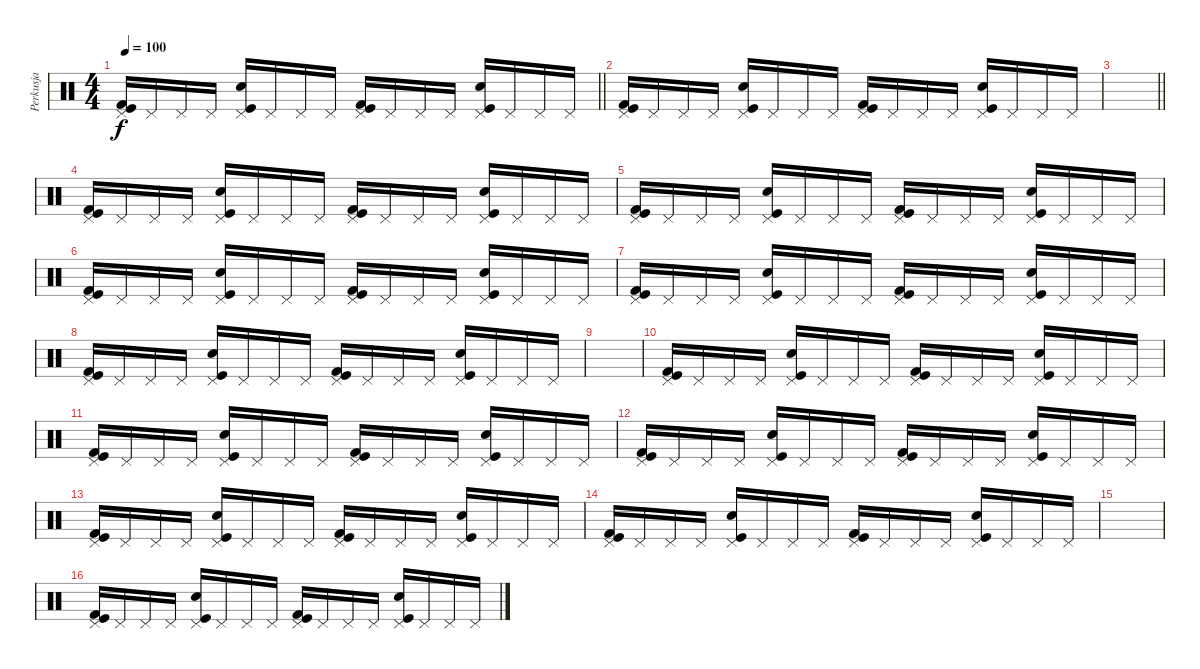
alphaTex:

\track ("Perkusja" "Perkusja") {instrument percussion}
\staff {score}
\articulation defaults
\ts (4 4)
\tempo 100
\clef neutral
\barLineRight lightlight
\ks c
("Pedal Hi-Hat (hit)" "Kick (hit)" "Kick (hit) 2").16{dy f} "Pedal Hi-Hat (hit)".16 "Pedal Hi-Hat (hit)".16 "Pedal Hi-Hat (hit)".16 ("Pedal Hi-Hat (hit)" "Hand Clap (hit)" "Kick (hit)").16 "Pedal Hi-Hat (hit)".16 "Pedal Hi-Hat (hit)".16 "Pedal Hi-Hat (hit)".16 ("Pedal Hi-Hat (hit)" "Kick (hit)" "Kick (hit) 2").16 "Pedal Hi-Hat (hit)".16 "Pedal Hi-Hat (hit)".16 "Pedal Hi-Hat (hit)".16 ("Pedal Hi-Hat (hit)" "Hand Clap (hit)" "Kick (hit)").16 "Pedal Hi-Hat (hit)".16 "Pedal Hi-Hat (hit)".16 "Pedal Hi-Hat (hit)".16 |
("Pedal Hi-Hat (hit)" "Kick (hit)" "Kick (hit) 2").16 "Pedal Hi-Hat (hit)".16 "Pedal Hi-Hat (hit)".16 "Pedal Hi-Hat (hit)".16 ("Pedal Hi-Hat (hit)" "Hand Clap (hit)" "Kick (hit)").16 "Pedal Hi-Hat (hit)".16 "Pedal Hi-Hat (hit)".16 "Pedal Hi-Hat (hit)".16 ("Pedal Hi-Hat (hit)" "Kick (hit)" "Kick (hit) 2").16 "Pedal Hi-Hat (hit)".16 "Pedal Hi-Hat (hit)".16 "Pedal Hi-Hat (hit)".16 ("Pedal Hi-Hat (hit)" "Hand Clap (hit)" "Kick (hit)").16 "Pedal Hi-Hat (hit)".16 "Pedal Hi-Hat (hit)".16 "Pedal Hi-Hat (hit)".16 |
\barLineRight lightlight
|
("Pedal Hi-Hat (hit)" "Kick (hit)" "Kick (hit) 2").16 "Pedal Hi-Hat (hit)".16 "Pedal Hi-Hat (hit)".16 "Pedal Hi-Hat (hit)".16 ("Pedal Hi-Hat (hit)" "Hand Clap (hit)" "Kick (hit)").16 "Pedal Hi-Hat (hit)".16 "Pedal Hi-Hat (hit)".16 "Pedal Hi-Hat (hit)".16 ("Pedal Hi-Hat (hit)" "Kick (hit)" "Kick (hit) 2").16 "Pedal Hi-Hat (hit)".16 "Pedal Hi-Hat (hit)".16 "Pedal Hi-Hat (hit)".16 ("Pedal Hi-Hat (hit)" "Hand Clap (hit)" "Kick (hit)").16 "Pedal Hi-Hat (hit)".16 "Pedal Hi-Hat (hit)".16 "Pedal Hi-Hat (hit)".16 |
("Pedal Hi-Hat (hit)" "Kick (hit)" "Kick (hit) 2").16 "Pedal Hi-Hat (hit)".16 "Pedal Hi-Hat (hit)".16 "Pedal Hi-Hat (hit)".16 ("Pedal Hi-Hat (hit)" "Hand Clap (hit)" "Kick (hit)").16 "Pedal Hi-Hat (hit)".16 "Pedal Hi-Hat (hit)".16 "Pedal Hi-Hat (hit)".16 ("Pedal Hi-Hat (hit)" "Kick (hit)" "Kick (hit) 2").16 "Pedal Hi-Hat (hit)".16 "Pedal Hi-Hat (hit)".16 "Pedal Hi-Hat (hit)".16 ("Pedal Hi-Hat (hit)" "Hand Clap (hit)" "Kick (hit)").16 "Pedal Hi-Hat (hit)".16 "Pedal Hi-Hat (hit)".16 "Pedal Hi-Hat (hit)".16 |
("Pedal Hi-Hat (hit)" "Kick (hit)" "Kick (hit) 2").16 "Pedal Hi-Hat (hit)".16 "Pedal Hi-Hat (hit)".16 "Pedal Hi-Hat (hit)".16 ("Pedal Hi-Hat (hit)" "Hand Clap (hit)" "Kick (hit)").16 "Pedal Hi-Hat (hit)".16 "Pedal Hi-Hat (hit)".16 "Pedal Hi-Hat (hit)".16 ("Pedal Hi-Hat (hit)" "Kick (hit)" "Kick (hit) 2").16 "Pedal Hi-Hat (hit)".16 "Pedal Hi-Hat (hit)".16 "Pedal Hi-Hat (hit)".16 ("Pedal Hi-Hat (hit)" "Hand Clap (hit)" "Kick (hit)").16 "Pedal Hi-Hat (hit)".16 "Pedal Hi-Hat (hit)".16 "Pedal Hi-Hat (hit)".16 |
("Pedal Hi-Hat (hit)" "Kick (hit)" "Kick (hit) 2").16 "Pedal Hi-Hat (hit)".16 "Pedal Hi-Hat (hit)".16 "Pedal Hi-Hat (hit)".16 ("Pedal Hi-Hat (hit)" "Hand Clap (hit)" "Kick (hit)").16 "Pedal Hi-Hat (hit)".16 "Pedal Hi-Hat (hit)".16 "Pedal Hi-Hat (hit)".16 ("Pedal Hi-Hat (hit)" "Kick (hit)" "Kick (hit) 2").16 "Pedal Hi-Hat (hit)".16 "Pedal Hi-Hat (hit)".16 "Pedal Hi-Hat (hit)".16 ("Pedal Hi-Hat (hit)" "Hand Clap (hit)" "Kick (hit)").16 "Pedal Hi-Hat (hit)".16 "Pedal Hi-Hat (hit)".16 "Pedal Hi-Hat (hit)".16 |
("Pedal Hi-Hat (hit)" "Kick (hit)" "Kick (hit) 2").16 "Pedal Hi-Hat (hit)".16 "Pedal Hi-Hat (hit)".16 "Pedal Hi-Hat (hit)".16 ("Pedal Hi-Hat (hit)" "Hand Clap (hit)" "Kick (hit)").16 "Pedal Hi-Hat (hit)".16 "Pedal Hi-Hat (hit)".16 "Pedal Hi-Hat (hit)".16 ("Pedal Hi-Hat (hit)" "Kick (hit)" "Kick (hit) 2").16 "Pedal Hi-Hat (hit)".16 "Pedal Hi-Hat (hit)".16 "Pedal Hi-Hat (hit)".16 ("Pedal Hi-Hat (hit)" "Hand Clap (hit)" "Kick (hit)").16 "Pedal Hi-Hat (hit)".16 "Pedal Hi-Hat (hit)".16 "Pedal Hi-Hat (hit)".16 |
|
("Pedal Hi-Hat (hit)" "Kick (hit)" "Kick (hit) 2").16 "Pedal Hi-Hat (hit)".16 "Pedal Hi-Hat (hit)".16 "Pedal Hi-Hat (hit)".16 ("Pedal Hi-Hat (hit)" "Hand Clap (hit)" "Kick (hit)").16 "Pedal Hi-Hat (hit)".16 "Pedal Hi-Hat (hit)".16 "Pedal Hi-Hat (hit)".16 ("Pedal Hi-Hat (hit)" "Kick (hit)" "Kick (hit) 2").16 "Pedal Hi-Hat (hit)".16 "Pedal Hi-Hat (hit)".16 "Pedal Hi-Hat (hit)".16 ("Pedal Hi-Hat (hit)" "Hand Clap (hit)" "Kick (hit)").16 "Pedal Hi-Hat (hit)".16 "Pedal Hi-Hat (hit)".16 "Pedal Hi-Hat (hit)".16 |
("Pedal Hi-Hat (hit)" "Kick (hit)" "Kick (hit) 2").16 "Pedal Hi-Hat (hit)".16 "Pedal Hi-Hat (hit)".16 "Pedal Hi-Hat (hit)".16 ("Pedal Hi-Hat (hit)" "Hand Clap (hit)" "Kick (hit)").16 "Pedal Hi-Hat (hit)".16 "Pedal Hi-Hat (hit)".16 "Pedal Hi-Hat (hit)".16 ("Pedal Hi-Hat (hit)" "Kick (hit)" "Kick (hit) 2").16 "Pedal Hi-Hat (hit)".16 "Pedal Hi-Hat (hit)".16 "Pedal Hi-Hat (hit)".16 ("Pedal Hi-Hat (hit)" "Hand Clap (hit)" "Kick (hit)").16 "Pedal Hi-Hat (hit)".16 "Pedal Hi-Hat (hit)".16 "Pedal Hi-Hat (hit)".16 |
("Pedal Hi-Hat (hit)" "Kick (hit)" "Kick (hit) 2").16 "Pedal Hi-Hat (hit)".16 "Pedal Hi-Hat (hit)".16 "Pedal Hi-Hat (hit)".16 ("Pedal Hi-Hat (hit)" "Hand Clap (hit)" "Kick (hit)").16 "Pedal Hi-Hat (hit)".16 "Pedal Hi-Hat (hit)".16 "Pedal Hi-Hat (hit)".16 ("Pedal Hi-Hat (hit)" "Kick (hit)" "Kick (hit) 2").16 "Pedal Hi-Hat (hit)".16 "Pedal Hi-Hat (hit)".16 "Pedal Hi-Hat (hit)".16 ("Pedal Hi-Hat (hit)" "Hand Clap (hit)" "Kick (hit)").16 "Pedal Hi-Hat (hit)".16 "Pedal Hi-Hat (hit)".16 "Pedal Hi-Hat (hit)".16 |
("Pedal Hi-Hat (hit)" "Kick (hit)" "Kick (hit) 2").16 "Pedal Hi-Hat (hit)".16 "Pedal Hi-Hat (hit)".16 "Pedal Hi-Hat (hit)".16 ("Pedal Hi-Hat (hit)" "Hand Clap (hit)" "Kick (hit)").16 "Pedal Hi-Hat (hit)".16 "Pedal Hi-Hat (hit)".16 "Pedal Hi-Hat (hit)".16 ("Pedal Hi-Hat (hit)" "Kick (hit)" "Kick (hit) 2").16 "Pedal Hi-Hat (hit)".16 "Pedal Hi-Hat (hit)".16 "Pedal Hi-Hat (hit)".16 ("Pedal Hi-Hat (hit)" "Hand Clap (hit)" "Kick (hit)").16 "Pedal Hi-Hat (hit)".16 "Pedal Hi-Hat (hit)".16 "Pedal Hi-Hat (hit)".16 |
("Pedal Hi-Hat (hit)" "Kick (hit)" "Kick (hit) 2").16 "Pedal Hi-Hat (hit)".16 "Pedal Hi-Hat (hit)".16 "Pedal Hi-Hat (hit)".16 ("Pedal Hi-Hat (hit)" "Hand Clap (hit)" "Kick (hit)").16 "Pedal Hi-Hat (hit)".16 "Pedal Hi-Hat (hit)".16 "Pedal Hi-Hat (hit)".16 ("Pedal Hi-Hat (hit)" "Kick (hit)" "Kick (hit) 2").16 "Pedal Hi-Hat (hit)".16 "Pedal Hi-Hat (hit)".16 "Pedal Hi-Hat (hit)".16 ("Pedal Hi-Hat (hit)" "Hand Clap (hit)" "Kick (hit)").16 "Pedal Hi-Hat (hit)".16 "Pedal Hi-Hat (hit)".16 "Pedal Hi-Hat (hit)".16 |
|
("Pedal Hi-Hat (hit)" "Kick (hit)" "Kick (hit) 2").16 "Pedal Hi-Hat (hit)".16 "Pedal Hi-Hat (hit)".16 "Pedal Hi-Hat (hit)".16 ("Pedal Hi-Hat (hit)" "Hand Clap (hit)" "Kick (hit)").16 "Pedal Hi-Hat (hit)".16 "Pedal Hi-Hat (hit)".16 "Pedal Hi-Hat (hit)".16 ("Pedal Hi-Hat (hit)" "Kick (hit)" "Kick (hit) 2").16 "Pedal Hi-Hat (hit)".16 "Pedal Hi-Hat (hit)".16 "Pedal Hi-Hat (hit)".16 ("Pedal Hi-Hat (hit)" "Hand Clap (hit)" "Kick (hit)").16 "Pedal Hi-Hat (hit)".16 "Pedal Hi-Hat (hit)".16 "Pedal Hi-Hat (hit)".16
